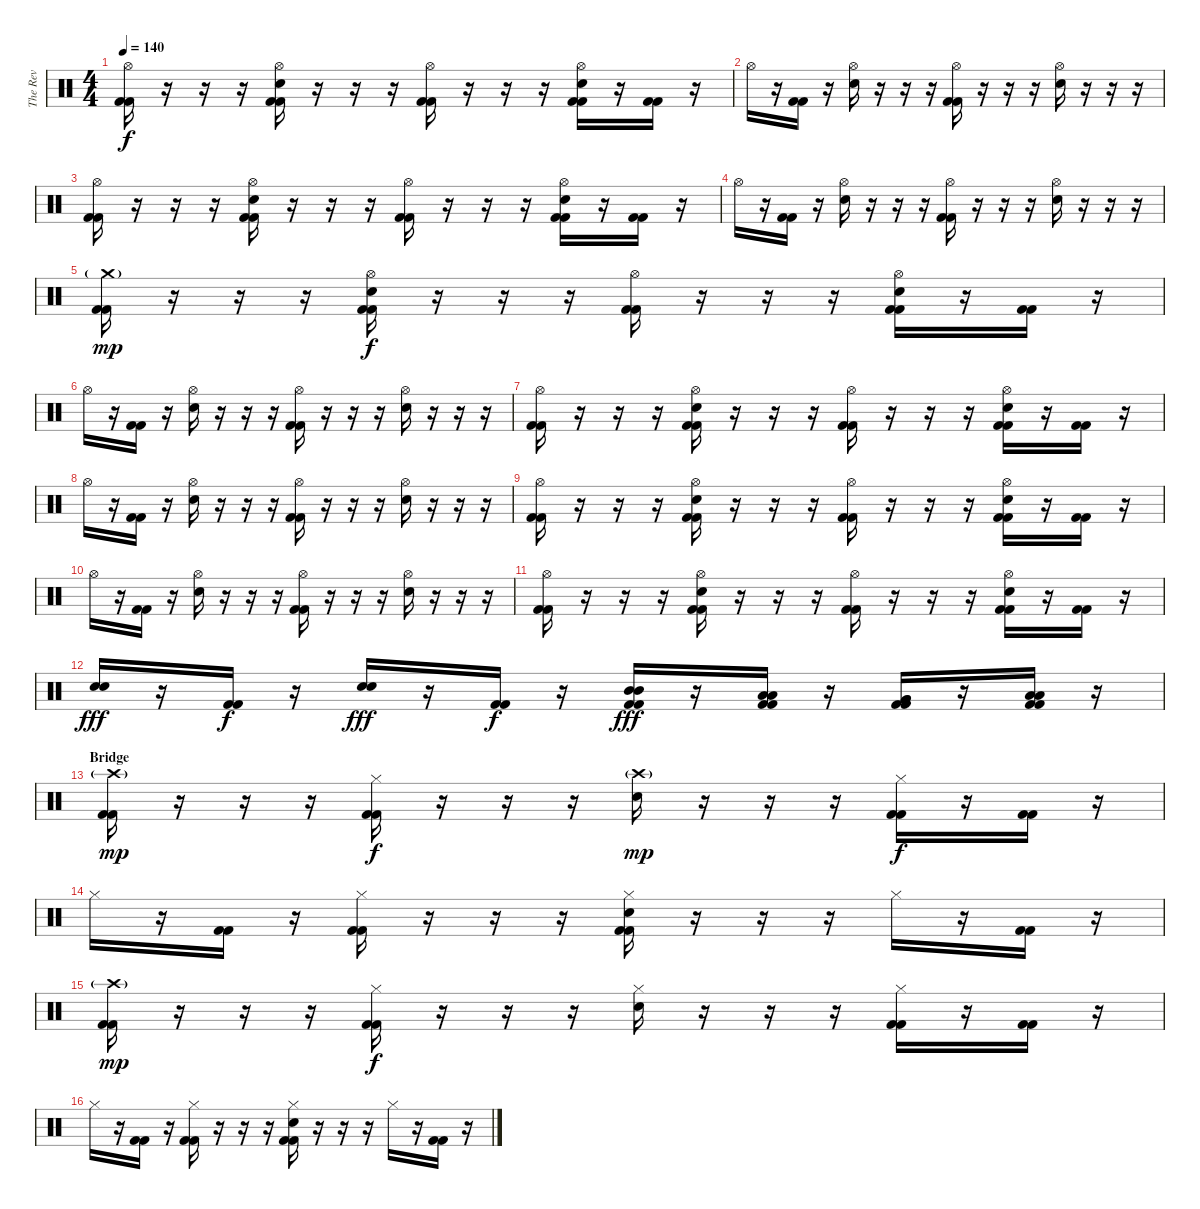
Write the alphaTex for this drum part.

\track ("The Rev" "The Rev") {instrument percussion}
\staff {score}
\articulation defaults
\ts (4 4)
\tempo 140
\clef neutral
\ks c
("Hi-Hat (open)" "Kick (hit) 2" "Kick (hit) 2").16{dy f} r.16 r.16 r.16 ("Hi-Hat (open)" "Electric Snare (hit)" "Kick (hit) 2" "Kick (hit) 2").16 r.16 r.16 r.16 ("Hi-Hat (open)" "Kick (hit) 2" "Kick (hit) 2").16 r.16 r.16 r.16 ("Hi-Hat (open)" "Electric Snare (hit)" "Kick (hit) 2" "Kick (hit) 2").16 r.16 ("Kick (hit) 2" "Kick (hit) 2").16 r.16 |
"Hi-Hat (open)".16 r.16 ("Kick (hit) 2" "Kick (hit) 2").16 r.16 ("Hi-Hat (open)" "Electric Snare (hit)").16 r.16 r.16 r.16 ("Hi-Hat (open)" "Kick (hit) 2" "Kick (hit) 2").16 r.16 r.16 r.16 ("Hi-Hat (open)" "Electric Snare (hit)").16 r.16 r.16 r.16 |
("Hi-Hat (open)" "Kick (hit) 2" "Kick (hit) 2").16 r.16 r.16 r.16 ("Hi-Hat (open)" "Electric Snare (hit)" "Kick (hit) 2" "Kick (hit) 2").16 r.16 r.16 r.16 ("Hi-Hat (open)" "Kick (hit) 2" "Kick (hit) 2").16 r.16 r.16 r.16 ("Hi-Hat (open)" "Electric Snare (hit)" "Kick (hit) 2" "Kick (hit) 2").16 r.16 ("Kick (hit) 2" "Kick (hit) 2").16 r.16 |
"Hi-Hat (open)".16 r.16 ("Kick (hit) 2" "Kick (hit) 2").16 r.16 ("Hi-Hat (open)" "Electric Snare (hit)").16 r.16 r.16 r.16 ("Hi-Hat (open)" "Kick (hit) 2" "Kick (hit) 2").16 r.16 r.16 r.16 ("Hi-Hat (open)" "Electric Snare (hit)").16 r.16 r.16 r.16 |
("Crash medium (hit)"{g} "Kick (hit) 2" "Kick (hit) 2").16{dy mp} r.16 r.16 r.16 ("Hi-Hat (open)" "Electric Snare (hit)" "Kick (hit) 2" "Kick (hit) 2").16{dy f} r.16 r.16 r.16 ("Hi-Hat (open)" "Kick (hit) 2" "Kick (hit) 2").16 r.16 r.16 r.16 ("Hi-Hat (open)" "Electric Snare (hit)" "Kick (hit) 2" "Kick (hit) 2").16 r.16 ("Kick (hit) 2" "Kick (hit) 2").16 r.16 |
"Hi-Hat (open)".16 r.16 ("Kick (hit) 2" "Kick (hit) 2").16 r.16 ("Hi-Hat (open)" "Electric Snare (hit)").16 r.16 r.16 r.16 ("Hi-Hat (open)" "Kick (hit) 2" "Kick (hit) 2").16 r.16 r.16 r.16 ("Hi-Hat (open)" "Electric Snare (hit)").16 r.16 r.16 r.16 |
("Hi-Hat (open)" "Kick (hit) 2" "Kick (hit) 2").16 r.16 r.16 r.16 ("Hi-Hat (open)" "Electric Snare (hit)" "Kick (hit) 2" "Kick (hit) 2").16 r.16 r.16 r.16 ("Hi-Hat (open)" "Kick (hit) 2" "Kick (hit) 2").16 r.16 r.16 r.16 ("Hi-Hat (open)" "Electric Snare (hit)" "Kick (hit) 2" "Kick (hit) 2").16 r.16 ("Kick (hit) 2" "Kick (hit) 2").16 r.16 |
"Hi-Hat (open)".16 r.16 ("Kick (hit) 2" "Kick (hit) 2").16 r.16 ("Hi-Hat (open)" "Electric Snare (hit)").16 r.16 r.16 r.16 ("Hi-Hat (open)" "Kick (hit) 2" "Kick (hit) 2").16 r.16 r.16 r.16 ("Hi-Hat (open)" "Electric Snare (hit)").16 r.16 r.16 r.16 |
("Hi-Hat (open)" "Kick (hit) 2" "Kick (hit) 2").16 r.16 r.16 r.16 ("Hi-Hat (open)" "Electric Snare (hit)" "Kick (hit) 2" "Kick (hit) 2").16 r.16 r.16 r.16 ("Hi-Hat (open)" "Kick (hit) 2" "Kick (hit) 2").16 r.16 r.16 r.16 ("Hi-Hat (open)" "Electric Snare (hit)" "Kick (hit) 2" "Kick (hit) 2").16 r.16 ("Kick (hit) 2" "Kick (hit) 2").16 r.16 |
"Hi-Hat (open)".16 r.16 ("Kick (hit) 2" "Kick (hit) 2").16 r.16 ("Hi-Hat (open)" "Electric Snare (hit)").16 r.16 r.16 r.16 ("Hi-Hat (open)" "Kick (hit) 2" "Kick (hit) 2").16 r.16 r.16 r.16 ("Hi-Hat (open)" "Electric Snare (hit)").16 r.16 r.16 r.16 |
("Hi-Hat (open)" "Kick (hit) 2" "Kick (hit) 2").16 r.16 r.16 r.16 ("Hi-Hat (open)" "Electric Snare (hit)" "Kick (hit) 2" "Kick (hit) 2").16 r.16 r.16 r.16 ("Hi-Hat (open)" "Kick (hit) 2" "Kick (hit) 2").16 r.16 r.16 r.16 ("Hi-Hat (open)" "Electric Snare (hit)" "Kick (hit) 2" "Kick (hit) 2").16 r.16 ("Kick (hit) 2" "Kick (hit) 2").16 r.16 |
("Electric Snare (hit)" "Electric Snare (hit)").16{dy fff} r.16 ("Kick (hit) 2" "Kick (hit) 2").16{dy f} r.16 ("Electric Snare (hit)" "Electric Snare (hit)").16{dy fff} r.16 ("Kick (hit) 2" "Kick (hit) 2").16{dy f} r.16 ("Mid Tom (hit)" "Mid Tom (hit)" "Kick (hit) 2" "Kick (hit) 2").16{dy fff} r.16 ("Low Tom (hit)" "Low Tom (hit)" "Kick (hit) 2" "Kick (hit) 2").16 r.16 ("Very Low Tom (hit)" "Very Low Tom (hit)" "Kick (hit) 2" "Kick (hit) 2").16 r.16 ("Low Floor Tom (hit)" "Low Floor Tom (hit)" "Kick (hit) 2" "Kick (hit) 2").16 r.16 |
\section ("" "Bridge")
("Crash high (hit)"{g} "Kick (hit) 2" "Kick (hit) 2").16{dy mp} r.16 r.16 r.16 ("Hi-Hat (closed)" "Kick (hit) 2" "Kick (hit) 2").16{dy f} r.16 r.16 r.16 ("Crash high (hit)"{g} "Electric Snare (hit)").16{dy mp} r.16 r.16 r.16 ("Hi-Hat (closed)" "Kick (hit) 2" "Kick (hit) 2").16{dy f} r.16 ("Kick (hit) 2" "Kick (hit) 2").16 r.16 |
"Hi-Hat (closed)".16 r.16 ("Kick (hit) 2" "Kick (hit) 2").16 r.16 ("Hi-Hat (closed)" "Kick (hit) 2" "Kick (hit) 2").16 r.16 r.16 r.16 ("Hi-Hat (closed)" "Electric Snare (hit)" "Kick (hit) 2" "Kick (hit) 2").16 r.16 r.16 r.16 "Hi-Hat (closed)".16 r.16 ("Kick (hit) 2" "Kick (hit) 2").16 r.16 |
("Crash high (hit)"{g} "Kick (hit) 2" "Kick (hit) 2").16{dy mp} r.16 r.16 r.16 ("Hi-Hat (closed)" "Kick (hit) 2" "Kick (hit) 2").16{dy f} r.16 r.16 r.16 ("Hi-Hat (closed)" "Electric Snare (hit)").16 r.16 r.16 r.16 ("Hi-Hat (closed)" "Kick (hit) 2" "Kick (hit) 2").16 r.16 ("Kick (hit) 2" "Kick (hit) 2").16 r.16 |
"Hi-Hat (closed)".16 r.16 ("Kick (hit) 2" "Kick (hit) 2").16 r.16 ("Hi-Hat (closed)" "Kick (hit) 2" "Kick (hit) 2").16 r.16 r.16 r.16 ("Hi-Hat (closed)" "Electric Snare (hit)" "Kick (hit) 2" "Kick (hit) 2").16 r.16 r.16 r.16 "Hi-Hat (closed)".16 r.16 ("Kick (hit) 2" "Kick (hit) 2").16 r.16
